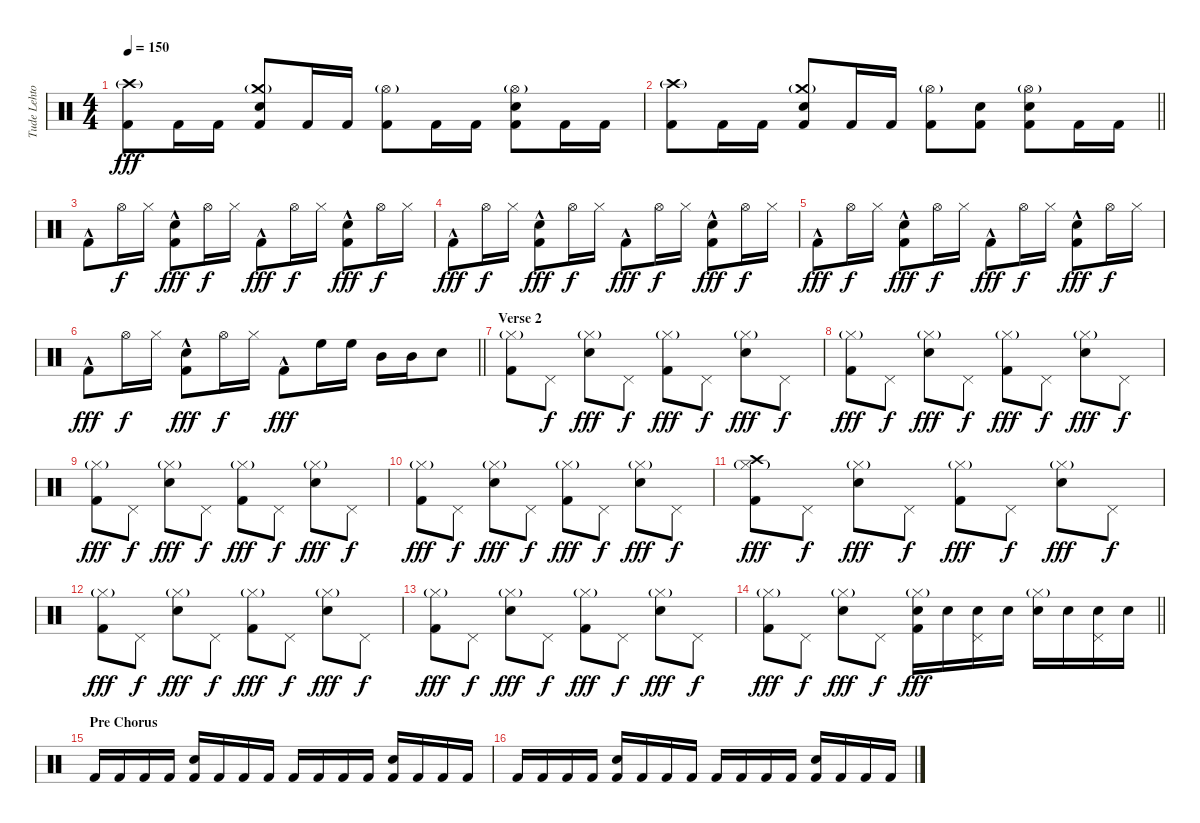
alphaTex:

\track ("Tude Lehtonen" "Tude Lehto") {instrument percussion}
\staff {score}
\articulation defaults
\ts (4 4)
\tempo 150
\clef neutral
\ks c
("Crash high (hit)"{g} "Kick (hit) 2").8{dy fff} "Kick (hit) 2".16 "Kick (hit) 2".16 ("Crash medium (hit)"{g} "Electric Snare (hit)" "Kick (hit) 2").8 "Kick (hit) 2".16 "Kick (hit) 2".16 ("Hi-Hat (open)"{g} "Kick (hit) 2").8 "Kick (hit) 2".16 "Kick (hit) 2".16 ("Hi-Hat (open)"{g} "Electric Snare (hit)" "Kick (hit) 2").8 "Kick (hit) 2".16 "Kick (hit) 2".16 |
\barLineRight lightlight
("Crash high (hit)"{g} "Kick (hit) 2").8 "Kick (hit) 2".16 "Kick (hit) 2".16 ("Crash medium (hit)"{g} "Electric Snare (hit)" "Kick (hit) 2").8 "Kick (hit) 2".16 "Kick (hit) 2".16 ("Hi-Hat (open)"{g} "Kick (hit) 2").8 ("Electric Snare (hit)" "Kick (hit) 2").8 ("Hi-Hat (open)"{g} "Electric Snare (hit)" "Kick (hit) 2").8 "Kick (hit) 2".16 "Kick (hit) 2".16 |
\section ("" "")
"Kick (hit) 2"{hac}.8 "Hi-Hat (open)".16{dy f} "Hi-Hat (closed)".16 ("Electric Snare (hit)" "Kick (hit) 2"{hac}).8{dy fff} "Hi-Hat (open)".16{dy f} "Hi-Hat (closed)".16 "Kick (hit) 2"{hac}.8{dy fff} "Hi-Hat (open)".16{dy f} "Hi-Hat (closed)".16 ("Electric Snare (hit)" "Kick (hit) 2"{hac}).8{dy fff} "Hi-Hat (open)".16{dy f} "Hi-Hat (closed)".16 |
"Kick (hit) 2"{hac}.8{dy fff} "Hi-Hat (open)".16{dy f} "Hi-Hat (closed)".16 ("Electric Snare (hit)" "Kick (hit) 2"{hac}).8{dy fff} "Hi-Hat (open)".16{dy f} "Hi-Hat (closed)".16 "Kick (hit) 2"{hac}.8{dy fff} "Hi-Hat (open)".16{dy f} "Hi-Hat (closed)".16 ("Electric Snare (hit)" "Kick (hit) 2"{hac}).8{dy fff} "Hi-Hat (open)".16{dy f} "Hi-Hat (closed)".16 |
"Kick (hit) 2"{hac}.8{dy fff} "Hi-Hat (open)".16{dy f} "Hi-Hat (closed)".16 ("Electric Snare (hit)" "Kick (hit) 2"{hac}).8{dy fff} "Hi-Hat (open)".16{dy f} "Hi-Hat (closed)".16 "Kick (hit) 2"{hac}.8{dy fff} "Hi-Hat (open)".16{dy f} "Hi-Hat (closed)".16 ("Electric Snare (hit)" "Kick (hit) 2"{hac}).8{dy fff} "Hi-Hat (open)".16{dy f} "Hi-Hat (closed)".16 |
\barLineRight lightlight "Kick (hit) 2"{hac}.8{dy fff} "Hi-Hat (open)".16{dy f} "Hi-Hat (closed)".16
("Electric Snare (hit)" "Kick (hit) 2"{hac}).8{dy fff} "Hi-Hat (open)".16{dy f} "Hi-Hat (closed)".16 "Kick (hit) 2"{hac}.8{dy fff} "High Floor Tom (hit)".16 "High Floor Tom (hit)".16 "Mid Tom (hit)".16 "Mid Tom (hit)".16 "Electric Snare (hit)".8 |
\section ("" "Verse 2")
("Hi-Hat (closed)"{g} "Kick (hit) 2").8 "Pedal Hi-Hat (hit)".8{dy f} ("Hi-Hat (closed)"{g} "Electric Snare (hit)").8{dy fff} "Pedal Hi-Hat (hit)".8{dy f} ("Hi-Hat (closed)"{g} "Kick (hit) 2").8{dy fff} "Pedal Hi-Hat (hit)".8{dy f} ("Hi-Hat (closed)"{g} "Electric Snare (hit)").8{dy fff} "Pedal Hi-Hat (hit)".8{dy f} |
("Hi-Hat (closed)"{g} "Kick (hit) 2").8{dy fff} "Pedal Hi-Hat (hit)".8{dy f} ("Hi-Hat (closed)"{g} "Electric Snare (hit)").8{dy fff} "Pedal Hi-Hat (hit)".8{dy f} ("Hi-Hat (closed)"{g} "Kick (hit) 2").8{dy fff} "Pedal Hi-Hat (hit)".8{dy f} ("Hi-Hat (closed)"{g} "Electric Snare (hit)").8{dy fff} "Pedal Hi-Hat (hit)".8{dy f} |
("Hi-Hat (closed)"{g} "Kick (hit) 2").8{dy fff} "Pedal Hi-Hat (hit)".8{dy f} ("Hi-Hat (closed)"{g} "Electric Snare (hit)").8{dy fff} "Pedal Hi-Hat (hit)".8{dy f} ("Hi-Hat (closed)"{g} "Kick (hit) 2").8{dy fff} "Pedal Hi-Hat (hit)".8{dy f} ("Hi-Hat (closed)"{g} "Electric Snare (hit)").8{dy fff} "Pedal Hi-Hat (hit)".8{dy f} |
("Hi-Hat (closed)"{g} "Kick (hit) 2").8{dy fff} "Pedal Hi-Hat (hit)".8{dy f} ("Hi-Hat (closed)"{g} "Electric Snare (hit)").8{dy fff} "Pedal Hi-Hat (hit)".8{dy f} ("Hi-Hat (closed)"{g} "Kick (hit) 2").8{dy fff} "Pedal Hi-Hat (hit)".8{dy f} ("Hi-Hat (closed)"{g} "Electric Snare (hit)").8{dy fff} "Pedal Hi-Hat (hit)".8{dy f} |
("Crash high (hit)" "Hi-Hat (closed)"{g} "Kick (hit) 2").8{dy fff} "Pedal Hi-Hat (hit)".8{dy f} ("Hi-Hat (closed)"{g} "Electric Snare (hit)").8{dy fff} "Pedal Hi-Hat (hit)".8{dy f} ("Hi-Hat (closed)"{g} "Kick (hit) 2").8{dy fff} "Pedal Hi-Hat (hit)".8{dy f} ("Hi-Hat (closed)"{g} "Electric Snare (hit)").8{dy fff} "Pedal Hi-Hat (hit)".8{dy f} |
("Hi-Hat (closed)"{g} "Kick (hit) 2").8{dy fff} "Pedal Hi-Hat (hit)".8{dy f} ("Hi-Hat (closed)"{g} "Electric Snare (hit)").8{dy fff} "Pedal Hi-Hat (hit)".8{dy f} ("Hi-Hat (closed)"{g} "Kick (hit) 2").8{dy fff} "Pedal Hi-Hat (hit)".8{dy f} ("Hi-Hat (closed)"{g} "Electric Snare (hit)").8{dy fff} "Pedal Hi-Hat (hit)".8{dy f} |
("Hi-Hat (closed)"{g} "Kick (hit) 2").8{dy fff} "Pedal Hi-Hat (hit)".8{dy f} ("Hi-Hat (closed)"{g} "Electric Snare (hit)").8{dy fff} "Pedal Hi-Hat (hit)".8{dy f} ("Hi-Hat (closed)"{g} "Kick (hit) 2").8{dy fff} "Pedal Hi-Hat (hit)".8{dy f} ("Hi-Hat (closed)"{g} "Electric Snare (hit)").8{dy fff} "Pedal Hi-Hat (hit)".8{dy f} |
\barLineRight lightlight
("Hi-Hat (closed)"{g} "Kick (hit) 2").8{dy fff} "Pedal Hi-Hat (hit)".8{dy f} ("Hi-Hat (closed)"{g} "Electric Snare (hit)").8{dy fff} "Pedal Hi-Hat (hit)".8{dy f} ("Hi-Hat (closed)"{g} "Electric Snare (hit)" "Kick (hit) 2").16{dy fff} "Electric Snare (hit)".16 ("Pedal Hi-Hat (hit)" "Electric Snare (hit)").16 "Electric Snare (hit)".16 ("Hi-Hat (closed)"{g} "Electric Snare (hit)").16 "Electric Snare (hit)".16 ("Pedal Hi-Hat (hit)" "Electric Snare (hit)").16 "Electric Snare (hit)".16 |
\section ("" "Pre Chorus")
"Kick (hit) 2".16 "Kick (hit) 2".16 "Kick (hit) 2".16 "Kick (hit) 2".16 ("Snare (hit) 2" "Kick (hit) 2").16 "Kick (hit) 2".16 "Kick (hit) 2".16 "Kick (hit) 2".16 "Kick (hit) 2".16 "Kick (hit) 2".16 "Kick (hit) 2".16 "Kick (hit) 2".16 ("Snare (hit) 2" "Kick (hit) 2").16 "Kick (hit) 2".16 "Kick (hit) 2".16 "Kick (hit) 2".16 |
"Kick (hit) 2".16 "Kick (hit) 2".16 "Kick (hit) 2".16 "Kick (hit) 2".16 ("Snare (hit) 2" "Kick (hit) 2").16 "Kick (hit) 2".16 "Kick (hit) 2".16 "Kick (hit) 2".16 "Kick (hit) 2".16 "Kick (hit) 2".16 "Kick (hit) 2".16 "Kick (hit) 2".16 ("Snare (hit) 2" "Kick (hit) 2").16 "Kick (hit) 2".16 "Kick (hit) 2".16 "Kick (hit) 2".16
